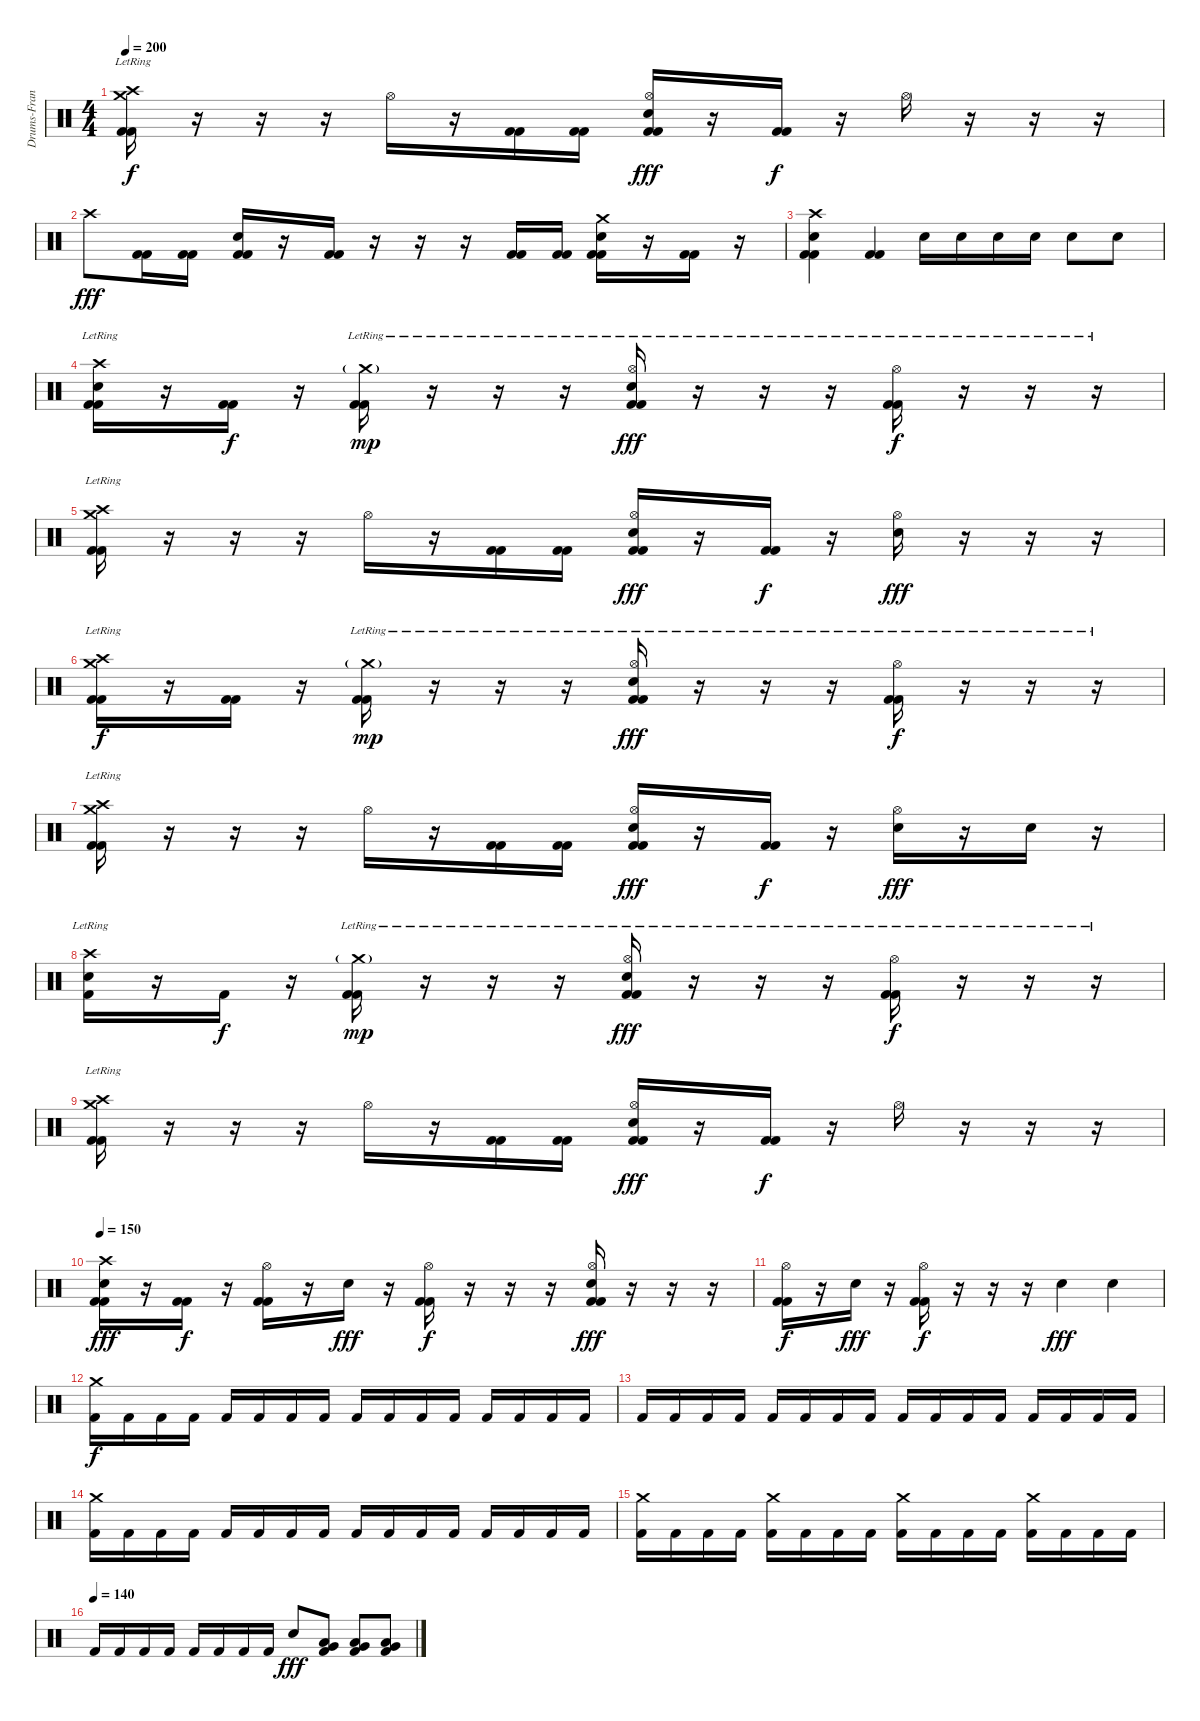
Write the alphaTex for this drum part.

\track ("Drums-Francis Mark" "Drums-Fran") {instrument percussion}
\staff {score}
\articulation defaults
\ts (4 4)
\tempo 200
\clef neutral
\ks c
("Crash high (hit)"{lr} "Crash medium (hit)"{lr} "Kick (hit) 2" "Kick (hit) 2").16{dy f} r.16 r.16 r.16 "Hi-Hat (open)".16 r.16 ("Kick (hit) 2" "Kick (hit) 2").16 ("Kick (hit) 2" "Kick (hit) 2").16 ("Hi-Hat (open)" "Electric Snare (hit)" "Kick (hit) 2" "Kick (hit) 2").16{dy fff} r.16 ("Kick (hit) 2" "Kick (hit) 2").16{dy f} r.16 "Hi-Hat (open)".16 r.16 r.16 r.16 |
"Crash high (hit)".8{dy fff} ("Kick (hit) 2" "Kick (hit) 2").16 ("Kick (hit) 2" "Kick (hit) 2").16 ("Electric Snare (hit)" "Kick (hit) 2" "Kick (hit) 2").16 r.16 ("Kick (hit) 2" "Kick (hit) 2").16 r.16 r.16 r.16 ("Kick (hit) 2" "Kick (hit) 2").16 ("Kick (hit) 2" "Kick (hit) 2").16 ("Crash medium (hit)" "Electric Snare (hit)" "Kick (hit) 2" "Kick (hit) 2").16 r.16 ("Kick (hit) 2" "Kick (hit) 2").16 r.16 |
("Crash high (hit)" "Electric Snare (hit)" "Kick (hit) 2" "Kick (hit) 2").4 ("Kick (hit) 2" "Kick (hit) 2").4 "Electric Snare (hit)".16 "Electric Snare (hit)".16 "Electric Snare (hit)".16 "Electric Snare (hit)".16 "Electric Snare (hit)".8 "Electric Snare (hit)".8 |
("Crash high (hit)"{lr} "Electric Snare (hit)" "Kick (hit) 2" "Kick (hit) 2").16 r.16 ("Kick (hit) 2" "Kick (hit) 2").16{dy f} r.16 ("Crash medium (hit)"{g lr} "Kick (hit) 2" "Kick (hit) 2").16{dy mp} r.16 r.16 r.16 ("Hi-Hat (open)"{lr} "Electric Snare (hit)" "Kick (hit) 2" "Kick (hit) 2").16{dy fff} r.16 r.16 r.16 ("Hi-Hat (open)"{lr} "Kick (hit) 2" "Kick (hit) 2").16{dy f} r.16 r.16 r.16 |
("Crash high (hit)"{lr} "Crash medium (hit)"{lr} "Kick (hit) 2" "Kick (hit) 2").16 r.16 r.16 r.16 "Hi-Hat (open)".16 r.16 ("Kick (hit) 2" "Kick (hit) 2").16 ("Kick (hit) 2" "Kick (hit) 2").16 ("Hi-Hat (open)" "Electric Snare (hit)" "Kick (hit) 2" "Kick (hit) 2").16{dy fff} r.16 ("Kick (hit) 2" "Kick (hit) 2").16{dy f} r.16 ("Hi-Hat (open)" "Electric Snare (hit)").16{dy fff} r.16 r.16 r.16 |
("Crash high (hit)"{lr} "Crash medium (hit)"{lr} "Kick (hit) 2" "Kick (hit) 2").16{dy f} r.16 ("Kick (hit) 2" "Kick (hit) 2").16 r.16 ("Crash medium (hit)"{g lr} "Kick (hit) 2" "Kick (hit) 2").16{dy mp} r.16 r.16 r.16 ("Hi-Hat (open)"{lr} "Electric Snare (hit)" "Kick (hit) 2" "Kick (hit) 2").16{dy fff} r.16 r.16 r.16 ("Hi-Hat (open)"{lr} "Kick (hit) 2" "Kick (hit) 2").16{dy f} r.16 r.16 r.16 |
("Crash high (hit)"{lr} "Crash medium (hit)"{lr} "Kick (hit) 2" "Kick (hit) 2").16 r.16 r.16 r.16 "Hi-Hat (open)".16 r.16 ("Kick (hit) 2" "Kick (hit) 2").16 ("Kick (hit) 2" "Kick (hit) 2").16 ("Hi-Hat (open)" "Electric Snare (hit)" "Kick (hit) 2" "Kick (hit) 2").16{dy fff} r.16 ("Kick (hit) 2" "Kick (hit) 2").16{dy f} r.16 ("Hi-Hat (open)" "Electric Snare (hit)").16{dy fff} r.16 "Electric Snare (hit)".16 r.16 |
("Crash high (hit)"{lr} "Electric Snare (hit)" "Kick (hit) 2").16 r.16 "Kick (hit) 2".16{dy f} r.16 ("Crash medium (hit)"{g lr} "Kick (hit) 2" "Kick (hit) 2").16{dy mp} r.16 r.16 r.16 ("Hi-Hat (open)"{lr} "Electric Snare (hit)" "Kick (hit) 2" "Kick (hit) 2").16{dy fff} r.16 r.16 r.16 ("Hi-Hat (open)"{lr} "Kick (hit) 2" "Kick (hit) 2").16{dy f} r.16 r.16 r.16 |
("Crash high (hit)"{lr} "Crash medium (hit)"{lr} "Kick (hit) 2" "Kick (hit) 2").16 r.16 r.16 r.16 "Hi-Hat (open)".16 r.16 ("Kick (hit) 2" "Kick (hit) 2").16 ("Kick (hit) 2" "Kick (hit) 2").16 ("Hi-Hat (open)" "Electric Snare (hit)" "Kick (hit) 2" "Kick (hit) 2").16{dy fff} r.16 ("Kick (hit) 2" "Kick (hit) 2").16{dy f} r.16 "Hi-Hat (open)".16 r.16 r.16 r.16 |
\tempo 150
("Crash high (hit)" "Electric Snare (hit)" "Kick (hit) 2" "Kick (hit) 2").16{dy fff} r.16 ("Kick (hit) 2" "Kick (hit) 2").16{dy f} r.16 ("Hi-Hat (open)" "Kick (hit) 2" "Kick (hit) 2").16 r.16 "Electric Snare (hit)".16{dy fff} r.16 ("Hi-Hat (open)" "Kick (hit) 2" "Kick (hit) 2").16{dy f} r.16 r.16 r.16 ("Hi-Hat (open)" "Electric Snare (hit)" "Kick (hit) 2" "Kick (hit) 2").16{dy fff} r.16 r.16 r.16 |
("Hi-Hat (open)" "Kick (hit) 2" "Kick (hit) 2").16{dy f} r.16 "Electric Snare (hit)".16{dy fff} r.16 ("Hi-Hat (open)" "Kick (hit) 2" "Kick (hit) 2").16{dy f} r.16 r.16 r.16 "Electric Snare (hit)".4{dy fff} "Electric Snare (hit)".4 |
("Crash medium (hit)" "Kick (hit) 2").16{dy f} "Kick (hit) 2".16 "Kick (hit) 2".16 "Kick (hit) 2".16 "Kick (hit) 2".16 "Kick (hit) 2".16 "Kick (hit) 2".16 "Kick (hit) 2".16 "Kick (hit) 2".16 "Kick (hit) 2".16 "Kick (hit) 2".16 "Kick (hit) 2".16 "Kick (hit) 2".16 "Kick (hit) 2".16 "Kick (hit) 2".16 "Kick (hit) 2".16 |
"Kick (hit) 2".16 "Kick (hit) 2".16 "Kick (hit) 2".16 "Kick (hit) 2".16 "Kick (hit) 2".16 "Kick (hit) 2".16 "Kick (hit) 2".16 "Kick (hit) 2".16 "Kick (hit) 2".16 "Kick (hit) 2".16 "Kick (hit) 2".16 "Kick (hit) 2".16 "Kick (hit) 2".16 "Kick (hit) 2".16 "Kick (hit) 2".16 "Kick (hit) 2".16 |
("Crash medium (hit)" "Kick (hit) 2").16 "Kick (hit) 2".16 "Kick (hit) 2".16 "Kick (hit) 2".16 "Kick (hit) 2".16 "Kick (hit) 2".16 "Kick (hit) 2".16 "Kick (hit) 2".16 "Kick (hit) 2".16 "Kick (hit) 2".16 "Kick (hit) 2".16 "Kick (hit) 2".16 "Kick (hit) 2".16 "Kick (hit) 2".16 "Kick (hit) 2".16 "Kick (hit) 2".16 |
("Crash medium (hit)" "Kick (hit) 2").16 "Kick (hit) 2".16 "Kick (hit) 2".16 "Kick (hit) 2".16 ("Crash medium (hit)" "Kick (hit) 2").16 "Kick (hit) 2".16 "Kick (hit) 2".16 "Kick (hit) 2".16 ("Crash medium (hit)" "Kick (hit) 2").16 "Kick (hit) 2".16 "Kick (hit) 2".16 "Kick (hit) 2".16 ("Crash medium (hit)" "Kick (hit) 2").16 "Kick (hit) 2".16 "Kick (hit) 2".16 "Kick (hit) 2".16 |
\tempo (140)
"Kick (hit) 2".16 "Kick (hit) 2".16 "Kick (hit) 2".16 "Kick (hit) 2".16 "Kick (hit) 2".16 "Kick (hit) 2".16 "Kick (hit) 2".16 "Kick (hit) 2".16 "Electric Snare (hit)".8{dy fff} ("Very Low Tom (hit)" "Low Tom (hit)" "Kick (hit) 2").8 ("Very Low Tom (hit)" "Low Tom (hit)" "Kick (hit) 2").8 ("Very Low Tom (hit)" "Low Tom (hit)" "Kick (hit) 2").8
